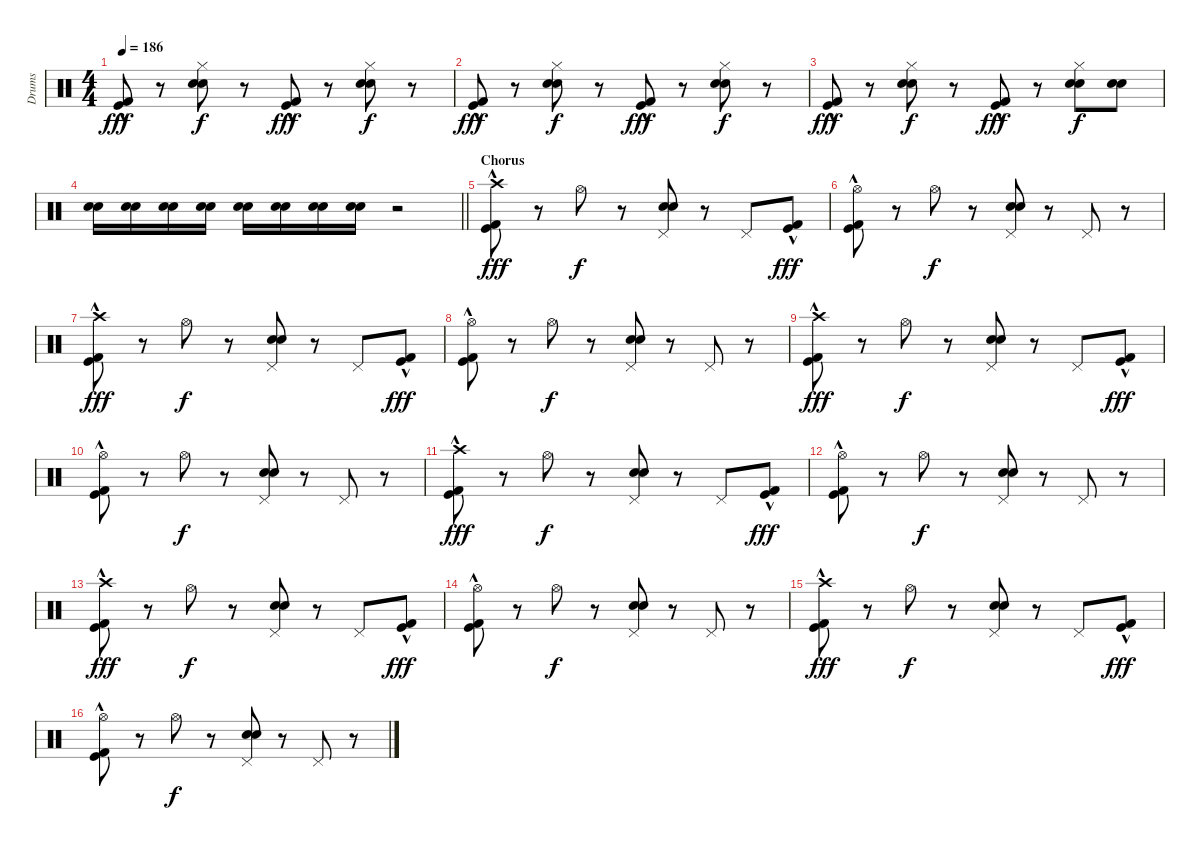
\track ("Drums" "Drums") {instrument percussion}
\staff {score}
\articulation defaults
\ts (4 4)
\tempo 186
\clef neutral
\ks c
("Kick (hit)"{hac} "Kick (hit) 2"{hac}).8{dy fff} r.8 ("Hi-Hat (closed)" "Snare (hit) 2" "Snare (hit) 2").8{dy f} r.8 ("Kick (hit)"{hac} "Kick (hit) 2"{hac}).8{dy fff} r.8 ("Hi-Hat (closed)" "Snare (hit) 2" "Snare (hit) 2").8{dy f} r.8 |
("Kick (hit)"{hac} "Kick (hit) 2"{hac}).8{dy fff} r.8 ("Hi-Hat (closed)" "Snare (hit) 2" "Snare (hit) 2").8{dy f} r.8 ("Kick (hit)"{hac} "Kick (hit) 2"{hac}).8{dy fff} r.8 ("Hi-Hat (closed)" "Snare (hit) 2" "Snare (hit) 2").8{dy f} r.8 |
("Kick (hit)"{hac} "Kick (hit) 2"{hac}).8{dy fff} r.8 ("Hi-Hat (closed)" "Snare (hit) 2" "Snare (hit) 2").8{dy f} r.8 ("Kick (hit)"{hac} "Kick (hit) 2"{hac}).8{dy fff} r.8 ("Hi-Hat (closed)" "Snare (hit) 2" "Snare (hit) 2").8{dy f} ("Snare (hit) 2" "Snare (hit) 2").8 |
\barLineRight lightlight
("Snare (hit) 2" "Snare (hit) 2").16 ("Snare (hit) 2" "Snare (hit) 2").16 ("Snare (hit) 2" "Snare (hit) 2").16 ("Snare (hit) 2" "Snare (hit) 2").16 ("Snare (hit) 2" "Snare (hit) 2").16 ("Snare (hit) 2" "Snare (hit) 2").16 ("Snare (hit) 2" "Snare (hit) 2").16 ("Snare (hit) 2" "Snare (hit) 2").16 r.2 |
\section ("" "Chorus")
("Crash high (hit)" "Kick (hit)"{hac} "Kick (hit) 2"{hac}).8{dy fff} r.8 "Hi-Hat (open)".8{dy f} r.8 ("Pedal Hi-Hat (hit)" "Snare (hit) 2" "Snare (hit) 2").8 r.8 "Pedal Hi-Hat (hit)".8 ("Kick (hit)"{hac} "Kick (hit) 2"{hac}).8{dy fff} |
("Hi-Hat (open)" "Kick (hit)"{hac} "Kick (hit) 2"{hac}).8 r.8 "Hi-Hat (open)".8{dy f} r.8 ("Pedal Hi-Hat (hit)" "Snare (hit) 2" "Snare (hit) 2").8 r.8 "Pedal Hi-Hat (hit)".8 r.8 |
("Crash high (hit)" "Kick (hit)"{hac} "Kick (hit) 2"{hac}).8{dy fff} r.8 "Hi-Hat (open)".8{dy f} r.8 ("Pedal Hi-Hat (hit)" "Snare (hit) 2" "Snare (hit) 2").8 r.8 "Pedal Hi-Hat (hit)".8 ("Kick (hit)"{hac} "Kick (hit) 2"{hac}).8{dy fff} |
("Hi-Hat (open)" "Kick (hit)"{hac} "Kick (hit) 2"{hac}).8 r.8 "Hi-Hat (open)".8{dy f} r.8 ("Pedal Hi-Hat (hit)" "Snare (hit) 2" "Snare (hit) 2").8 r.8 "Pedal Hi-Hat (hit)".8 r.8 |
("Crash high (hit)" "Kick (hit)"{hac} "Kick (hit) 2"{hac}).8{dy fff} r.8 "Hi-Hat (open)".8{dy f} r.8 ("Pedal Hi-Hat (hit)" "Snare (hit) 2" "Snare (hit) 2").8 r.8 "Pedal Hi-Hat (hit)".8 ("Kick (hit)"{hac} "Kick (hit) 2"{hac}).8{dy fff} |
("Hi-Hat (open)" "Kick (hit)"{hac} "Kick (hit) 2"{hac}).8 r.8 "Hi-Hat (open)".8{dy f} r.8 ("Pedal Hi-Hat (hit)" "Snare (hit) 2" "Snare (hit) 2").8 r.8 "Pedal Hi-Hat (hit)".8 r.8 |
("Crash high (hit)" "Kick (hit)"{hac} "Kick (hit) 2"{hac}).8{dy fff} r.8 "Hi-Hat (open)".8{dy f} r.8 ("Pedal Hi-Hat (hit)" "Snare (hit) 2" "Snare (hit) 2").8 r.8 "Pedal Hi-Hat (hit)".8 ("Kick (hit)"{hac} "Kick (hit) 2"{hac}).8{dy fff} |
("Hi-Hat (open)" "Kick (hit)"{hac} "Kick (hit) 2"{hac}).8 r.8 "Hi-Hat (open)".8{dy f} r.8 ("Pedal Hi-Hat (hit)" "Snare (hit) 2" "Snare (hit) 2").8 r.8 "Pedal Hi-Hat (hit)".8 r.8 |
("Crash high (hit)" "Kick (hit)"{hac} "Kick (hit) 2"{hac}).8{dy fff} r.8 "Hi-Hat (open)".8{dy f} r.8 ("Pedal Hi-Hat (hit)" "Snare (hit) 2" "Snare (hit) 2").8 r.8 "Pedal Hi-Hat (hit)".8 ("Kick (hit)"{hac} "Kick (hit) 2"{hac}).8{dy fff} |
("Hi-Hat (open)" "Kick (hit)"{hac} "Kick (hit) 2"{hac}).8 r.8 "Hi-Hat (open)".8{dy f} r.8 ("Pedal Hi-Hat (hit)" "Snare (hit) 2" "Snare (hit) 2").8 r.8 "Pedal Hi-Hat (hit)".8 r.8 |
("Crash high (hit)" "Kick (hit)"{hac} "Kick (hit) 2"{hac}).8{dy fff} r.8 "Hi-Hat (open)".8{dy f} r.8 ("Pedal Hi-Hat (hit)" "Snare (hit) 2" "Snare (hit) 2").8 r.8 "Pedal Hi-Hat (hit)".8 ("Kick (hit)"{hac} "Kick (hit) 2"{hac}).8{dy fff} |
("Hi-Hat (open)" "Kick (hit)"{hac} "Kick (hit) 2"{hac}).8 r.8 "Hi-Hat (open)".8{dy f} r.8 ("Pedal Hi-Hat (hit)" "Snare (hit) 2" "Snare (hit) 2").8 r.8 "Pedal Hi-Hat (hit)".8 r.8
